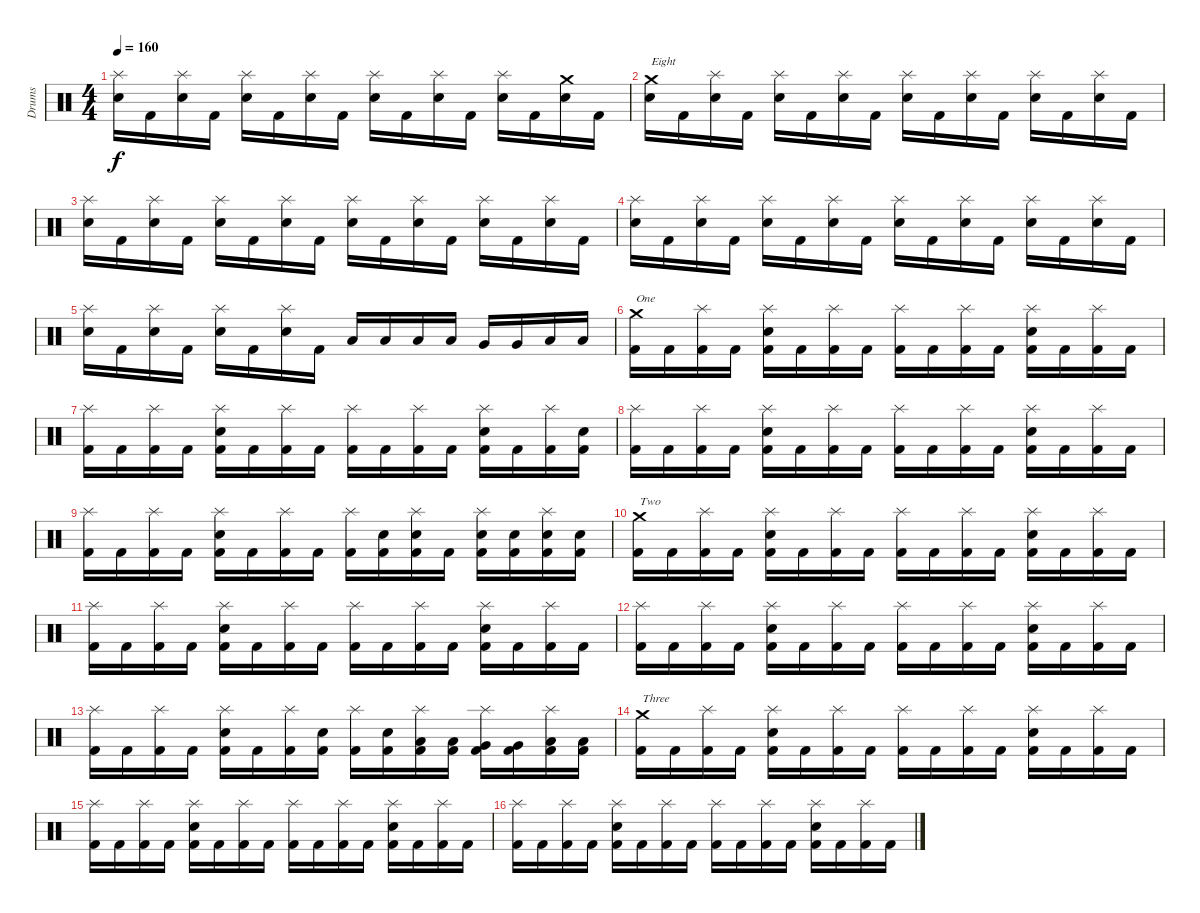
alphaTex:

\track ("Drums" "Drums") {instrument percussion}
\staff {score}
\articulation defaults
\ts (4 4)
\tempo 160
\clef neutral
\ks c
("Splash (hit)" "Snare (hit) 2").16{dy f} "Kick (hit) 2".16 ("Splash (hit)" "Snare (hit) 2").16 "Kick (hit) 2".16 ("Splash (hit)" "Snare (hit) 2").16 "Kick (hit) 2".16 ("Splash (hit)" "Snare (hit) 2").16 "Kick (hit) 2".16 ("Splash (hit)" "Snare (hit) 2").16 "Kick (hit) 2".16 ("Splash (hit)" "Snare (hit) 2").16 "Kick (hit) 2".16 ("Splash (hit)" "Snare (hit) 2").16 "Kick (hit) 2".16 ("Crash medium (hit)" "Snare (hit) 2").16 "Kick (hit) 2".16 |
("Crash medium (hit)" "Snare (hit) 2").16{txt "Eight"} "Kick (hit) 2".16 ("Splash (hit)" "Snare (hit) 2").16 "Kick (hit) 2".16 ("Splash (hit)" "Snare (hit) 2").16 "Kick (hit) 2".16 ("Splash (hit)" "Snare (hit) 2").16 "Kick (hit) 2".16 ("Splash (hit)" "Snare (hit) 2").16 "Kick (hit) 2".16 ("Splash (hit)" "Snare (hit) 2").16 "Kick (hit) 2".16 ("Splash (hit)" "Snare (hit) 2").16 "Kick (hit) 2".16 ("Splash (hit)" "Snare (hit) 2").16 "Kick (hit) 2".16 |
("Splash (hit)" "Snare (hit) 2").16 "Kick (hit) 2".16 ("Splash (hit)" "Snare (hit) 2").16 "Kick (hit) 2".16 ("Splash (hit)" "Snare (hit) 2").16 "Kick (hit) 2".16 ("Splash (hit)" "Snare (hit) 2").16 "Kick (hit) 2".16 ("Splash (hit)" "Snare (hit) 2").16 "Kick (hit) 2".16 ("Splash (hit)" "Snare (hit) 2").16 "Kick (hit) 2".16 ("Splash (hit)" "Snare (hit) 2").16 "Kick (hit) 2".16 ("Splash (hit)" "Snare (hit) 2").16 "Kick (hit) 2".16 |
("Splash (hit)" "Snare (hit) 2").16 "Kick (hit) 2".16 ("Splash (hit)" "Snare (hit) 2").16 "Kick (hit) 2".16 ("Splash (hit)" "Snare (hit) 2").16 "Kick (hit) 2".16 ("Splash (hit)" "Snare (hit) 2").16 "Kick (hit) 2".16 ("Splash (hit)" "Snare (hit) 2").16 "Kick (hit) 2".16 ("Splash (hit)" "Snare (hit) 2").16 "Kick (hit) 2".16 ("Splash (hit)" "Snare (hit) 2").16 "Kick (hit) 2".16 ("Splash (hit)" "Snare (hit) 2").16 "Kick (hit) 2".16 |
("Splash (hit)" "Snare (hit) 2").16 "Kick (hit) 2".16 ("Splash (hit)" "Snare (hit) 2").16 "Kick (hit) 2".16 ("Splash (hit)" "Snare (hit) 2").16 "Kick (hit) 2".16 ("Splash (hit)" "Snare (hit) 2").16 "Kick (hit) 2".16 "Low Tom (hit)".16 "Low Tom (hit)".16 "Low Tom (hit)".16 "Low Tom (hit)".16 "Very Low Tom (hit)".16 "Very Low Tom (hit)".16 "Low Floor Tom (hit)".16 "Low Floor Tom (hit)".16 |
("Crash medium (hit)" "Kick (hit) 2").16{txt "One"} "Kick (hit) 2".16 ("Splash (hit)" "Kick (hit) 2").16 "Kick (hit) 2".16 ("Splash (hit)" "Snare (hit) 2" "Kick (hit) 2").16 "Kick (hit) 2".16 ("Splash (hit)" "Kick (hit) 2").16 "Kick (hit) 2".16 ("Splash (hit)" "Kick (hit) 2").16 "Kick (hit) 2".16 ("Splash (hit)" "Kick (hit) 2").16 "Kick (hit) 2".16 ("Splash (hit)" "Snare (hit) 2" "Kick (hit) 2").16 "Kick (hit) 2".16 ("Splash (hit)" "Kick (hit) 2").16 "Kick (hit) 2".16 |
("Splash (hit)" "Kick (hit) 2").16 "Kick (hit) 2".16 ("Splash (hit)" "Kick (hit) 2").16 "Kick (hit) 2".16 ("Splash (hit)" "Snare (hit) 2" "Kick (hit) 2").16 "Kick (hit) 2".16 ("Splash (hit)" "Kick (hit) 2").16 "Kick (hit) 2".16 ("Splash (hit)" "Kick (hit) 2").16 "Kick (hit) 2".16 ("Splash (hit)" "Kick (hit) 2").16 "Kick (hit) 2".16 ("Splash (hit)" "Snare (hit) 2" "Kick (hit) 2").16 "Kick (hit) 2".16 ("Splash (hit)" "Kick (hit) 2").16 ("Snare (hit) 2" "Kick (hit) 2").16 |
("Splash (hit)" "Kick (hit) 2").16 "Kick (hit) 2".16 ("Splash (hit)" "Kick (hit) 2").16 "Kick (hit) 2".16 ("Splash (hit)" "Snare (hit) 2" "Kick (hit) 2").16 "Kick (hit) 2".16 ("Splash (hit)" "Kick (hit) 2").16 "Kick (hit) 2".16 ("Splash (hit)" "Kick (hit) 2").16 "Kick (hit) 2".16 ("Splash (hit)" "Kick (hit) 2").16 "Kick (hit) 2".16 ("Splash (hit)" "Snare (hit) 2" "Kick (hit) 2").16 "Kick (hit) 2".16 ("Splash (hit)" "Kick (hit) 2").16 "Kick (hit) 2".16 |
("Splash (hit)" "Kick (hit) 2").16 "Kick (hit) 2".16 ("Splash (hit)" "Kick (hit) 2").16 "Kick (hit) 2".16 ("Splash (hit)" "Snare (hit) 2" "Kick (hit) 2").16 "Kick (hit) 2".16 ("Splash (hit)" "Kick (hit) 2").16 "Kick (hit) 2".16 ("Splash (hit)" "Kick (hit) 2").16 ("Snare (hit) 2" "Kick (hit) 2").16 ("Splash (hit)" "Snare (hit) 2" "Kick (hit) 2").16 "Kick (hit) 2".16 ("Splash (hit)" "Snare (hit) 2" "Kick (hit) 2").16 ("Snare (hit) 2" "Kick (hit) 2").16 ("Splash (hit)" "Snare (hit) 2" "Kick (hit) 2").16 ("Snare (hit) 2" "Kick (hit) 2").16 |
("Crash medium (hit)" "Kick (hit) 2").16{txt "Two"} "Kick (hit) 2".16 ("Splash (hit)" "Kick (hit) 2").16 "Kick (hit) 2".16 ("Splash (hit)" "Snare (hit) 2" "Kick (hit) 2").16 "Kick (hit) 2".16 ("Splash (hit)" "Kick (hit) 2").16 "Kick (hit) 2".16 ("Splash (hit)" "Kick (hit) 2").16 "Kick (hit) 2".16 ("Splash (hit)" "Kick (hit) 2").16 "Kick (hit) 2".16 ("Splash (hit)" "Snare (hit) 2" "Kick (hit) 2").16 "Kick (hit) 2".16 ("Splash (hit)" "Kick (hit) 2").16 "Kick (hit) 2".16 |
("Splash (hit)" "Kick (hit) 2").16 "Kick (hit) 2".16 ("Splash (hit)" "Kick (hit) 2").16 "Kick (hit) 2".16 ("Splash (hit)" "Snare (hit) 2" "Kick (hit) 2").16 "Kick (hit) 2".16 ("Splash (hit)" "Kick (hit) 2").16 "Kick (hit) 2".16 ("Splash (hit)" "Kick (hit) 2").16 "Kick (hit) 2".16 ("Splash (hit)" "Kick (hit) 2").16 "Kick (hit) 2".16 ("Splash (hit)" "Snare (hit) 2" "Kick (hit) 2").16 "Kick (hit) 2".16 ("Splash (hit)" "Kick (hit) 2").16 "Kick (hit) 2".16 |
("Splash (hit)" "Kick (hit) 2").16 "Kick (hit) 2".16 ("Splash (hit)" "Kick (hit) 2").16 "Kick (hit) 2".16 ("Splash (hit)" "Snare (hit) 2" "Kick (hit) 2").16 "Kick (hit) 2".16 ("Splash (hit)" "Kick (hit) 2").16 "Kick (hit) 2".16 ("Splash (hit)" "Kick (hit) 2").16 "Kick (hit) 2".16 ("Splash (hit)" "Kick (hit) 2").16 "Kick (hit) 2".16 ("Splash (hit)" "Snare (hit) 2" "Kick (hit) 2").16 "Kick (hit) 2".16 ("Splash (hit)" "Kick (hit) 2").16 "Kick (hit) 2".16 |
("Splash (hit)" "Kick (hit) 2").16 "Kick (hit) 2".16 ("Splash (hit)" "Kick (hit) 2").16 "Kick (hit) 2".16 ("Splash (hit)" "Snare (hit) 2" "Kick (hit) 2").16 "Kick (hit) 2".16 ("Splash (hit)" "Kick (hit) 2").16 ("Snare (hit) 2" "Kick (hit) 2").16 ("Splash (hit)" "Kick (hit) 2").16 ("Snare (hit) 2" "Kick (hit) 2").16 ("Splash (hit)" "Low Tom (hit)" "Kick (hit) 2").16 ("Low Tom (hit)" "Kick (hit) 2").16 ("Splash (hit)" "Very Low Tom (hit)" "Kick (hit) 2").16 ("Very Low Tom (hit)" "Kick (hit) 2").16 ("Splash (hit)" "Low Floor Tom (hit)" "Kick (hit) 2").16 ("Low Floor Tom (hit)" "Kick (hit) 2").16 |
("Crash medium (hit)" "Kick (hit) 2").16{txt "Three"} "Kick (hit) 2".16 ("Splash (hit)" "Kick (hit) 2").16 "Kick (hit) 2".16 ("Splash (hit)" "Snare (hit) 2" "Kick (hit) 2").16 "Kick (hit) 2".16 ("Splash (hit)" "Kick (hit) 2").16 "Kick (hit) 2".16 ("Splash (hit)" "Kick (hit) 2").16 "Kick (hit) 2".16 ("Splash (hit)" "Kick (hit) 2").16 "Kick (hit) 2".16 ("Splash (hit)" "Snare (hit) 2" "Kick (hit) 2").16 "Kick (hit) 2".16 ("Splash (hit)" "Kick (hit) 2").16 "Kick (hit) 2".16 |
("Splash (hit)" "Kick (hit) 2").16 "Kick (hit) 2".16 ("Splash (hit)" "Kick (hit) 2").16 "Kick (hit) 2".16 ("Splash (hit)" "Snare (hit) 2" "Kick (hit) 2").16 "Kick (hit) 2".16 ("Splash (hit)" "Kick (hit) 2").16 "Kick (hit) 2".16 ("Splash (hit)" "Kick (hit) 2").16 "Kick (hit) 2".16 ("Splash (hit)" "Kick (hit) 2").16 "Kick (hit) 2".16 ("Splash (hit)" "Snare (hit) 2" "Kick (hit) 2").16 "Kick (hit) 2".16 ("Splash (hit)" "Kick (hit) 2").16 "Kick (hit) 2".16 |
("Splash (hit)" "Kick (hit) 2").16 "Kick (hit) 2".16 ("Splash (hit)" "Kick (hit) 2").16 "Kick (hit) 2".16 ("Splash (hit)" "Snare (hit) 2" "Kick (hit) 2").16 "Kick (hit) 2".16 ("Splash (hit)" "Kick (hit) 2").16 "Kick (hit) 2".16 ("Splash (hit)" "Kick (hit) 2").16 "Kick (hit) 2".16 ("Splash (hit)" "Kick (hit) 2").16 "Kick (hit) 2".16 ("Splash (hit)" "Snare (hit) 2" "Kick (hit) 2").16 "Kick (hit) 2".16 ("Splash (hit)" "Kick (hit) 2").16 "Kick (hit) 2".16
